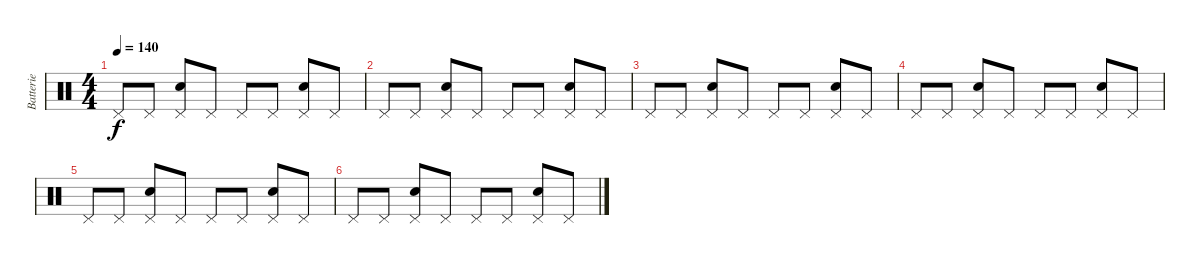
\track ("Batterie" "Batterie") {instrument percussion}
\staff {score}
\articulation defaults
\ts (4 4)
\tempo 140
\clef neutral
\ks c "Pedal Hi-Hat (hit)".8{dy f} "Pedal Hi-Hat (hit)".8
("Snare (hit) 2" "Pedal Hi-Hat (hit)").8 "Pedal Hi-Hat (hit)".8 "Pedal Hi-Hat (hit)".8 "Pedal Hi-Hat (hit)".8 ("Snare (hit) 2" "Pedal Hi-Hat (hit)").8 "Pedal Hi-Hat (hit)".8 |
"Pedal Hi-Hat (hit)".8 "Pedal Hi-Hat (hit)".8 ("Snare (hit) 2" "Pedal Hi-Hat (hit)").8 "Pedal Hi-Hat (hit)".8 "Pedal Hi-Hat (hit)".8 "Pedal Hi-Hat (hit)".8 ("Snare (hit) 2" "Pedal Hi-Hat (hit)").8 "Pedal Hi-Hat (hit)".8 |
"Pedal Hi-Hat (hit)".8 "Pedal Hi-Hat (hit)".8 ("Snare (hit) 2" "Pedal Hi-Hat (hit)").8 "Pedal Hi-Hat (hit)".8 "Pedal Hi-Hat (hit)".8 "Pedal Hi-Hat (hit)".8 ("Snare (hit) 2" "Pedal Hi-Hat (hit)").8 "Pedal Hi-Hat (hit)".8 |
"Pedal Hi-Hat (hit)".8 "Pedal Hi-Hat (hit)".8 ("Snare (hit) 2" "Pedal Hi-Hat (hit)").8 "Pedal Hi-Hat (hit)".8 "Pedal Hi-Hat (hit)".8 "Pedal Hi-Hat (hit)".8 ("Snare (hit) 2" "Pedal Hi-Hat (hit)").8 "Pedal Hi-Hat (hit)".8 |
"Pedal Hi-Hat (hit)".8 "Pedal Hi-Hat (hit)".8 ("Snare (hit) 2" "Pedal Hi-Hat (hit)").8 "Pedal Hi-Hat (hit)".8 "Pedal Hi-Hat (hit)".8 "Pedal Hi-Hat (hit)".8 ("Snare (hit) 2" "Pedal Hi-Hat (hit)").8 "Pedal Hi-Hat (hit)".8 |
"Pedal Hi-Hat (hit)".8 "Pedal Hi-Hat (hit)".8 ("Snare (hit) 2" "Pedal Hi-Hat (hit)").8 "Pedal Hi-Hat (hit)".8 "Pedal Hi-Hat (hit)".8 "Pedal Hi-Hat (hit)".8 ("Snare (hit) 2" "Pedal Hi-Hat (hit)").8 "Pedal Hi-Hat (hit)".8
